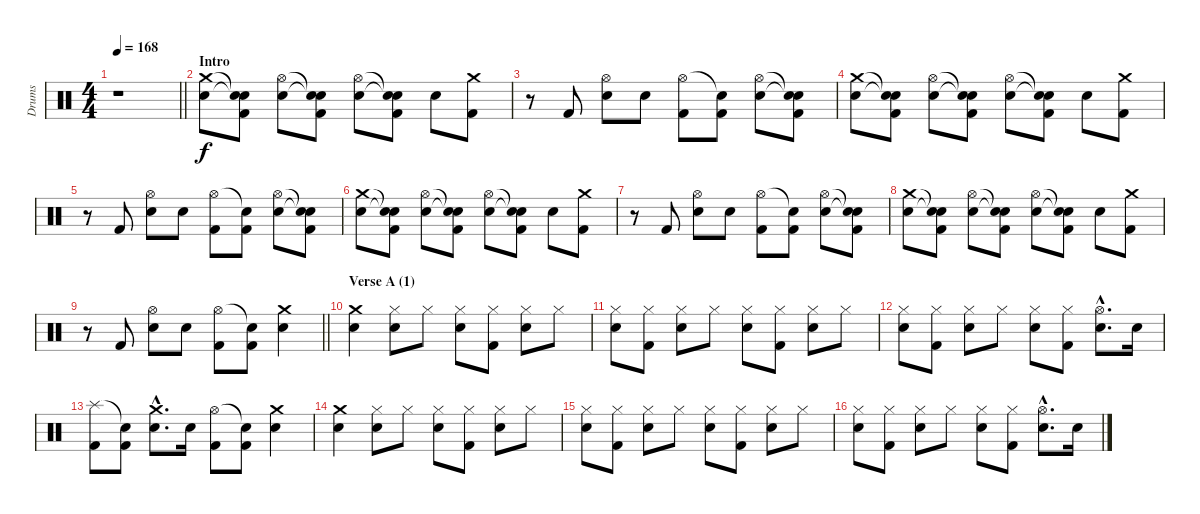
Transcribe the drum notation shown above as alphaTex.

\track ("Drums" "Drums") {instrument percussion}
\staff {score}
\articulation defaults
\ts (4 4)
\tempo 168
\clef neutral
\barLineRight lightlight
\ks c
r.1{dy f} |
\section ("" "Intro")
("Crash medium (hit)" "Electric Snare (hit)").8 ("Snare (hit)"{t} "Snare (hit)"{t} "Kick (hit) 2").8 ("Hi-Hat (open)" "Electric Snare (hit)").8 ("Snare (hit)"{t} "Snare (hit)"{t} "Kick (hit) 2").8 ("Hi-Hat (open)" "Electric Snare (hit)").8 ("Snare (hit)"{t} "Snare (hit)"{t} "Kick (hit) 2").8 "Electric Snare (hit)".8 ("Crash medium (hit)" "Kick (hit) 2").8 |
r.8 "Kick (hit) 2".8 ("Hi-Hat (open)" "Electric Snare (hit)").8 "Electric Snare (hit)".8 ("Hi-Hat (open)" "Kick (hit) 2").8 ("Snare (hit)"{t} "Kick (hit) 2").8 ("Hi-Hat (open)" "Electric Snare (hit)").8 ("Snare (hit)"{t} "Snare (hit)"{t} "Kick (hit) 2").8 |
("Crash medium (hit)" "Electric Snare (hit)").8 ("Snare (hit)"{t} "Snare (hit)"{t} "Kick (hit) 2").8 ("Hi-Hat (open)" "Electric Snare (hit)").8 ("Snare (hit)"{t} "Snare (hit)"{t} "Kick (hit) 2").8 ("Hi-Hat (open)" "Electric Snare (hit)").8 ("Snare (hit)"{t} "Snare (hit)"{t} "Kick (hit) 2").8 "Electric Snare (hit)".8 ("Crash medium (hit)" "Kick (hit) 2").8 |
r.8 "Kick (hit) 2".8 ("Hi-Hat (open)" "Electric Snare (hit)").8 "Electric Snare (hit)".8 ("Hi-Hat (open)" "Kick (hit) 2").8 ("Snare (hit)"{t} "Kick (hit) 2").8 ("Hi-Hat (open)" "Electric Snare (hit)").8 ("Snare (hit)"{t} "Snare (hit)"{t} "Kick (hit) 2").8 |
("Crash medium (hit)" "Electric Snare (hit)").8 ("Snare (hit)"{t} "Snare (hit)"{t} "Kick (hit) 2").8 ("Hi-Hat (open)" "Electric Snare (hit)").8 ("Snare (hit)"{t} "Snare (hit)"{t} "Kick (hit) 2").8 ("Hi-Hat (open)" "Electric Snare (hit)").8 ("Snare (hit)"{t} "Snare (hit)"{t} "Kick (hit) 2").8 "Electric Snare (hit)".8 ("Crash medium (hit)" "Kick (hit) 2").8 |
r.8 "Kick (hit) 2".8 ("Hi-Hat (open)" "Electric Snare (hit)").8 "Electric Snare (hit)".8 ("Hi-Hat (open)" "Kick (hit) 2").8 ("Snare (hit)"{t} "Kick (hit) 2").8 ("Hi-Hat (open)" "Electric Snare (hit)").8 ("Snare (hit)"{t} "Snare (hit)"{t} "Kick (hit) 2").8 |
("Crash medium (hit)" "Electric Snare (hit)").8 ("Snare (hit)"{t} "Snare (hit)"{t} "Kick (hit) 2").8 ("Hi-Hat (open)" "Electric Snare (hit)").8 ("Snare (hit)"{t} "Snare (hit)"{t} "Kick (hit) 2").8 ("Hi-Hat (open)" "Electric Snare (hit)").8 ("Snare (hit)"{t} "Snare (hit)"{t} "Kick (hit) 2").8 "Electric Snare (hit)".8 ("Crash medium (hit)" "Kick (hit) 2").8 |
\barLineRight lightlight
r.8 "Kick (hit) 2".8 ("Hi-Hat (open)" "Electric Snare (hit)").8 "Electric Snare (hit)".8 ("Hi-Hat (open)" "Kick (hit) 2").8 ("Snare (hit)"{t} "Kick (hit) 2").8 ("Crash medium (hit)" "Electric Snare (hit)").4 |
\section ("" "Verse A (1)")
("Crash medium (hit)" "Electric Snare (hit)").4 ("Hi-Hat (closed)" "Electric Snare (hit)").8 "Hi-Hat (closed)".8 ("Hi-Hat (closed)" "Electric Snare (hit)").8 ("Hi-Hat (closed)" "Kick (hit) 2").8 ("Hi-Hat (closed)" "Electric Snare (hit)").8 "Hi-Hat (closed)".8 |
("Hi-Hat (closed)" "Electric Snare (hit)").8 ("Hi-Hat (closed)" "Kick (hit) 2").8 ("Hi-Hat (closed)" "Electric Snare (hit)").8 "Hi-Hat (closed)".8 ("Hi-Hat (closed)" "Electric Snare (hit)").8 ("Hi-Hat (closed)" "Kick (hit) 2").8 ("Hi-Hat (closed)" "Electric Snare (hit)").8 "Hi-Hat (closed)".8 |
("Hi-Hat (closed)" "Electric Snare (hit)").8 ("Hi-Hat (closed)" "Kick (hit) 2").8 ("Hi-Hat (closed)" "Electric Snare (hit)").8 "Hi-Hat (closed)".8 ("Hi-Hat (closed)" "Electric Snare (hit)").8 ("Hi-Hat (closed)" "Kick (hit) 2").8 ("Hi-Hat (open)"{hac} "Electric Snare (hit)"{hac}).8{d} "Electric Snare (hit)".16 |
("Splash (hit)" "Kick (hit) 2").8 ("Snare (hit)"{t} "Kick (hit) 2").8 ("Crash medium (hit)"{hac} "Electric Snare (hit)"{hac}).8{d} "Electric Snare (hit)".16 ("Hi-Hat (open)" "Kick (hit) 2").8 ("Snare (hit)"{t} "Kick (hit) 2").8 ("Crash medium (hit)" "Electric Snare (hit)").4 |
("Crash medium (hit)" "Electric Snare (hit)").4 ("Hi-Hat (closed)" "Electric Snare (hit)").8 "Hi-Hat (closed)".8 ("Hi-Hat (closed)" "Electric Snare (hit)").8 ("Hi-Hat (closed)" "Kick (hit) 2").8 ("Hi-Hat (closed)" "Electric Snare (hit)").8 "Hi-Hat (closed)".8 |
("Hi-Hat (closed)" "Electric Snare (hit)").8 ("Hi-Hat (closed)" "Kick (hit) 2").8 ("Hi-Hat (closed)" "Electric Snare (hit)").8 "Hi-Hat (closed)".8 ("Hi-Hat (closed)" "Electric Snare (hit)").8 ("Hi-Hat (closed)" "Kick (hit) 2").8 ("Hi-Hat (closed)" "Electric Snare (hit)").8 "Hi-Hat (closed)".8 |
("Hi-Hat (closed)" "Electric Snare (hit)").8 ("Hi-Hat (closed)" "Kick (hit) 2").8 ("Hi-Hat (closed)" "Electric Snare (hit)").8 "Hi-Hat (closed)".8 ("Hi-Hat (closed)" "Electric Snare (hit)").8 ("Hi-Hat (closed)" "Kick (hit) 2").8 ("Hi-Hat (open)"{hac} "Electric Snare (hit)"{hac}).8{d} "Electric Snare (hit)".16
